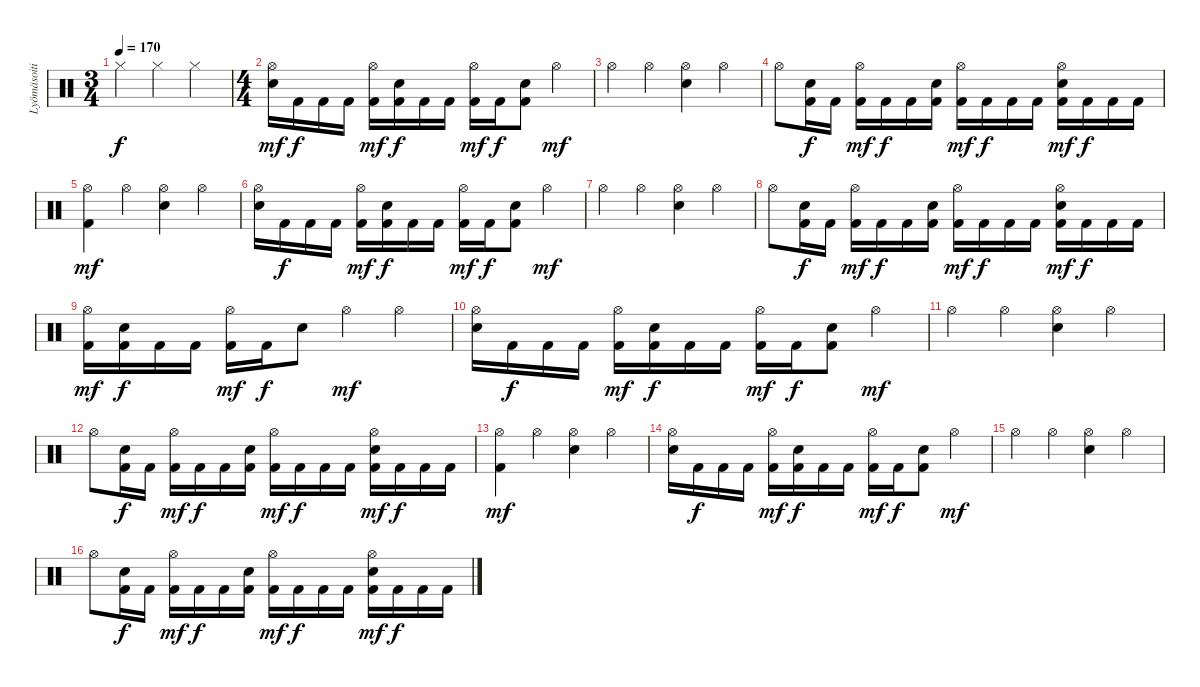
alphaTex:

\track ("Lyömäsoitin" "Lyömäsoiti") {instrument percussion}
\staff {score}
\articulation defaults
\ts (3 4)
\tempo 170
\clef neutral
\ks c "Hi-Hat (closed)".4{dy f} "Hi-Hat (closed)".4 "Hi-Hat (closed)".4
|
\ts (4 4)
("Hi-Hat (open)" "Electric Snare (hit)").16{dy mf} "Kick (hit) 2".16{dy f} "Kick (hit) 2".16 "Kick (hit) 2".16 ("Hi-Hat (open)" "Kick (hit) 2").16{dy mf} ("Electric Snare (hit)" "Kick (hit) 2").16{dy f} "Kick (hit) 2".16 "Kick (hit) 2".16 ("Hi-Hat (open)" "Kick (hit) 2").16{dy mf} "Kick (hit) 2".16{dy f} ("Electric Snare (hit)" "Kick (hit) 2").8 "Hi-Hat (open)".4{dy mf} |
"Hi-Hat (open)".4 "Hi-Hat (open)".4 ("Hi-Hat (open)" "Electric Snare (hit)").4 "Hi-Hat (open)".4 |
"Hi-Hat (open)".8 ("Kick (hit) 2" "Electric Snare (hit)").16{dy f} "Kick (hit) 2".16 ("Kick (hit) 2" "Hi-Hat (open)").16{dy mf} "Kick (hit) 2".16{dy f} "Kick (hit) 2".16 ("Kick (hit) 2" "Electric Snare (hit)").16 ("Kick (hit) 2" "Hi-Hat (open)").16{dy mf} "Kick (hit) 2".16{dy f} "Kick (hit) 2".16 "Kick (hit) 2".16 ("Kick (hit) 2" "Hi-Hat (open)" "Electric Snare (hit)").16{dy mf} "Kick (hit) 2".16{dy f} "Kick (hit) 2".16 "Kick (hit) 2".16 |
("Kick (hit) 2" "Hi-Hat (open)").4{dy mf} "Hi-Hat (open)".4 ("Hi-Hat (open)" "Electric Snare (hit)").4 "Hi-Hat (open)".4 |
("Hi-Hat (open)" "Electric Snare (hit)").16 "Kick (hit) 2".16{dy f} "Kick (hit) 2".16 "Kick (hit) 2".16 ("Hi-Hat (open)" "Kick (hit) 2").16{dy mf} ("Electric Snare (hit)" "Kick (hit) 2").16{dy f} "Kick (hit) 2".16 "Kick (hit) 2".16 ("Hi-Hat (open)" "Kick (hit) 2").16{dy mf} "Kick (hit) 2".16{dy f} ("Electric Snare (hit)" "Kick (hit) 2").8 "Hi-Hat (open)".4{dy mf} |
"Hi-Hat (open)".4 "Hi-Hat (open)".4 ("Hi-Hat (open)" "Electric Snare (hit)").4 "Hi-Hat (open)".4 |
"Hi-Hat (open)".8 ("Kick (hit) 2" "Electric Snare (hit)").16{dy f} "Kick (hit) 2".16 ("Kick (hit) 2" "Hi-Hat (open)").16{dy mf} "Kick (hit) 2".16{dy f} "Kick (hit) 2".16 ("Kick (hit) 2" "Electric Snare (hit)").16 ("Kick (hit) 2" "Hi-Hat (open)").16{dy mf} "Kick (hit) 2".16{dy f} "Kick (hit) 2".16 "Kick (hit) 2".16 ("Kick (hit) 2" "Hi-Hat (open)" "Electric Snare (hit)").16{dy mf} "Kick (hit) 2".16{dy f} "Kick (hit) 2".16 "Kick (hit) 2".16 |
("Hi-Hat (open)" "Kick (hit) 2").16{dy mf} ("Kick (hit) 2" "Electric Snare (hit)").16{dy f} "Kick (hit) 2".16 "Kick (hit) 2".16 ("Kick (hit) 2" "Hi-Hat (open)").16{dy mf} "Kick (hit) 2".16{dy f} "Electric Snare (hit)".8 "Hi-Hat (open)".4{dy mf} "Hi-Hat (open)".4 |
("Hi-Hat (open)" "Electric Snare (hit)").16 "Kick (hit) 2".16{dy f} "Kick (hit) 2".16 "Kick (hit) 2".16 ("Hi-Hat (open)" "Kick (hit) 2").16{dy mf} ("Electric Snare (hit)" "Kick (hit) 2").16{dy f} "Kick (hit) 2".16 "Kick (hit) 2".16 ("Hi-Hat (open)" "Kick (hit) 2").16{dy mf} "Kick (hit) 2".16{dy f} ("Electric Snare (hit)" "Kick (hit) 2").8 "Hi-Hat (open)".4{dy mf} |
"Hi-Hat (open)".4 "Hi-Hat (open)".4 ("Hi-Hat (open)" "Electric Snare (hit)").4 "Hi-Hat (open)".4 |
"Hi-Hat (open)".8 ("Kick (hit) 2" "Electric Snare (hit)").16{dy f} "Kick (hit) 2".16 ("Kick (hit) 2" "Hi-Hat (open)").16{dy mf} "Kick (hit) 2".16{dy f} "Kick (hit) 2".16 ("Kick (hit) 2" "Electric Snare (hit)").16 ("Kick (hit) 2" "Hi-Hat (open)").16{dy mf} "Kick (hit) 2".16{dy f} "Kick (hit) 2".16 "Kick (hit) 2".16 ("Kick (hit) 2" "Hi-Hat (open)" "Electric Snare (hit)").16{dy mf} "Kick (hit) 2".16{dy f} "Kick (hit) 2".16 "Kick (hit) 2".16 |
("Kick (hit) 2" "Hi-Hat (open)").4{dy mf} "Hi-Hat (open)".4 ("Hi-Hat (open)" "Electric Snare (hit)").4 "Hi-Hat (open)".4 |
("Hi-Hat (open)" "Electric Snare (hit)").16 "Kick (hit) 2".16{dy f} "Kick (hit) 2".16 "Kick (hit) 2".16 ("Hi-Hat (open)" "Kick (hit) 2").16{dy mf} ("Electric Snare (hit)" "Kick (hit) 2").16{dy f} "Kick (hit) 2".16 "Kick (hit) 2".16 ("Hi-Hat (open)" "Kick (hit) 2").16{dy mf} "Kick (hit) 2".16{dy f} ("Electric Snare (hit)" "Kick (hit) 2").8 "Hi-Hat (open)".4{dy mf} |
"Hi-Hat (open)".4 "Hi-Hat (open)".4 ("Hi-Hat (open)" "Electric Snare (hit)").4 "Hi-Hat (open)".4 |
"Hi-Hat (open)".8 ("Kick (hit) 2" "Electric Snare (hit)").16{dy f} "Kick (hit) 2".16 ("Kick (hit) 2" "Hi-Hat (open)").16{dy mf} "Kick (hit) 2".16{dy f} "Kick (hit) 2".16 ("Kick (hit) 2" "Electric Snare (hit)").16 ("Kick (hit) 2" "Hi-Hat (open)").16{dy mf} "Kick (hit) 2".16{dy f} "Kick (hit) 2".16 "Kick (hit) 2".16 ("Kick (hit) 2" "Hi-Hat (open)" "Electric Snare (hit)").16{dy mf} "Kick (hit) 2".16{dy f} "Kick (hit) 2".16 "Kick (hit) 2".16
